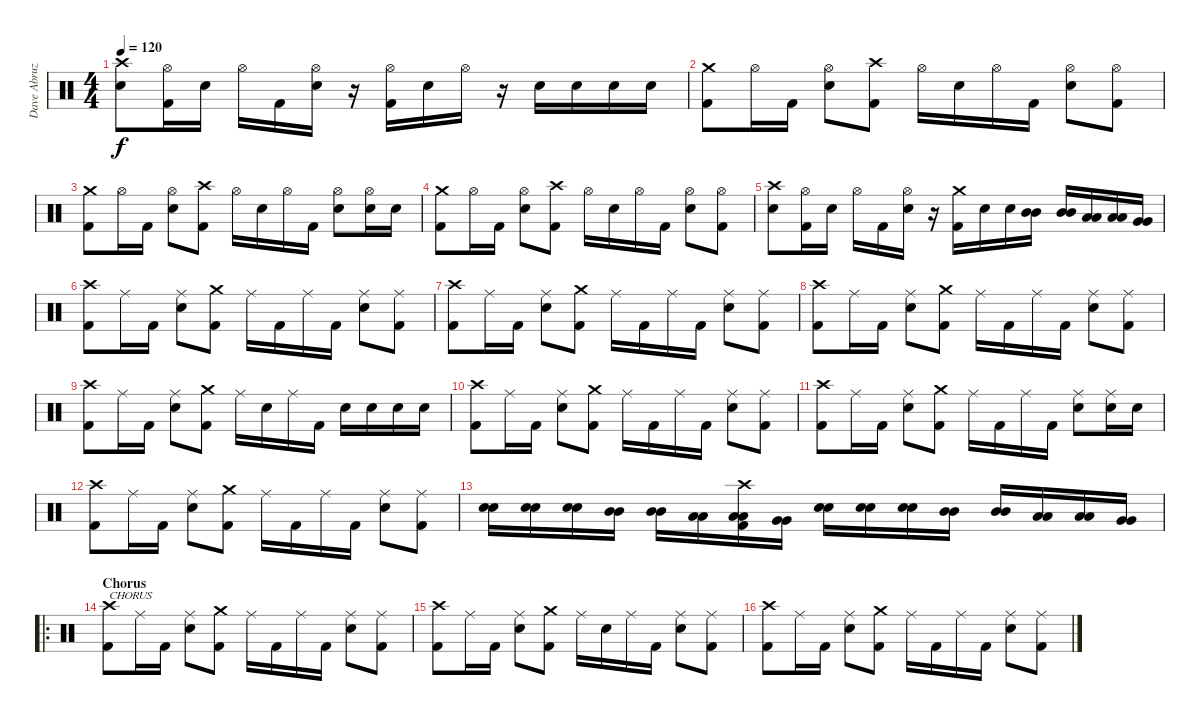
\track ("Dave Abruzzesse" "Dave Abruz") {instrument percussion}
\staff {score}
\articulation defaults
\ts (4 4)
\tempo 120
\clef neutral
\ks c
("Crash high (hit)" "Electric Snare (hit)").8{dy f} ("Hi-Hat (open)" "Kick (hit) 2").16 "Electric Snare (hit)".16 "Hi-Hat (open)".16 "Kick (hit) 2".16 ("Hi-Hat (open)" "Electric Snare (hit)").16 r.16 ("Hi-Hat (open)" "Kick (hit) 2").16 "Electric Snare (hit)".16 "Hi-Hat (open)".16 r.16 "Electric Snare (hit)".16 "Electric Snare (hit)".16 "Electric Snare (hit)".16 "Electric Snare (hit)".16 |
("Crash medium (hit)" "Kick (hit) 2").8 "Hi-Hat (open)".16 "Kick (hit) 2".16 ("Hi-Hat (open)" "Electric Snare (hit)").8 ("Crash high (hit)" "Kick (hit) 2").8 "Hi-Hat (open)".16 "Electric Snare (hit)".16 "Hi-Hat (open)".16 "Kick (hit) 2".16 ("Hi-Hat (open)" "Electric Snare (hit)").8 ("Hi-Hat (open)" "Kick (hit) 2").8 |
("Crash medium (hit)" "Kick (hit) 2").8 "Hi-Hat (open)".16 "Kick (hit) 2".16 ("Hi-Hat (open)" "Electric Snare (hit)").8 ("Crash high (hit)" "Kick (hit) 2").8 "Hi-Hat (open)".16 "Electric Snare (hit)".16 "Hi-Hat (open)".16 "Kick (hit) 2".16 ("Hi-Hat (open)" "Electric Snare (hit)").8 ("Hi-Hat (open)" "Electric Snare (hit)").16 "Electric Snare (hit)".16 |
("Crash medium (hit)" "Kick (hit) 2").8 "Hi-Hat (open)".16 "Kick (hit) 2".16 ("Hi-Hat (open)" "Electric Snare (hit)").8 ("Crash high (hit)" "Kick (hit) 2").8 "Hi-Hat (open)".16 "Electric Snare (hit)".16 "Hi-Hat (open)".16 "Kick (hit) 2".16 ("Hi-Hat (open)" "Electric Snare (hit)").8 ("Hi-Hat (open)" "Kick (hit) 2").8 |
("Crash high (hit)" "Electric Snare (hit)").8 ("Hi-Hat (open)" "Kick (hit) 2").16 "Electric Snare (hit)".16 "Hi-Hat (open)".16 "Kick (hit) 2".16 ("Hi-Hat (open)" "Electric Snare (hit)").16 r.16 ("Crash medium (hit)" "Kick (hit) 2").16 "Electric Snare (hit)".16 "Electric Snare (hit)".16 ("Mid Tom (hit)" "Mid Tom (hit)").16 ("Mid Tom (hit)" "Mid Tom (hit)").16 ("Low Tom (hit)" "Low Tom (hit)").16 ("Low Tom (hit)" "Low Tom (hit)").16 ("Very Low Tom (hit)" "Very Low Tom (hit)").16 |
("Crash high (hit)" "Kick (hit) 2").8 "Ride (middle)".16 "Kick (hit) 2".16 ("Ride (middle)" "Electric Snare (hit)").8 ("Crash medium (hit)" "Kick (hit) 2").8 "Ride (middle)".16 "Kick (hit) 2".16 "Ride (middle)".16 "Kick (hit) 2".16 ("Ride (middle)" "Electric Snare (hit)").8 ("Ride (middle)" "Kick (hit) 2").8 |
("Crash high (hit)" "Kick (hit) 2").8 "Ride (middle)".16 "Kick (hit) 2".16 ("Ride (middle)" "Electric Snare (hit)").8 ("Crash medium (hit)" "Kick (hit) 2").8 "Ride (middle)".16 "Kick (hit) 2".16 "Ride (middle)".16 "Kick (hit) 2".16 ("Ride (middle)" "Electric Snare (hit)").8 ("Ride (middle)" "Kick (hit) 2").8 |
("Crash high (hit)" "Kick (hit) 2").8 "Ride (middle)".16 "Kick (hit) 2".16 ("Ride (middle)" "Electric Snare (hit)").8 ("Crash medium (hit)" "Kick (hit) 2").8 "Ride (middle)".16 "Kick (hit) 2".16 "Ride (middle)".16 "Kick (hit) 2".16 ("Ride (middle)" "Electric Snare (hit)").8 ("Ride (middle)" "Kick (hit) 2").8 |
("Crash high (hit)" "Kick (hit) 2").8 "Ride (middle)".16 "Kick (hit) 2".16 ("Ride (middle)" "Electric Snare (hit)").8 ("Crash medium (hit)" "Kick (hit) 2").8 "Ride (middle)".16 "Electric Snare (hit)".16 "Ride (middle)".16 "Kick (hit) 2".16 "Electric Snare (hit)".16 "Electric Snare (hit)".16 "Electric Snare (hit)".16 "Electric Snare (hit)".16 |
("Crash high (hit)" "Kick (hit) 2").8 "Ride (middle)".16 "Kick (hit) 2".16 ("Ride (middle)" "Electric Snare (hit)").8 ("Crash medium (hit)" "Kick (hit) 2").8 "Ride (middle)".16 "Kick (hit) 2".16 "Ride (middle)".16 "Kick (hit) 2".16 ("Ride (middle)" "Electric Snare (hit)").8 ("Ride (middle)" "Kick (hit) 2").8 |
("Crash high (hit)" "Kick (hit) 2").8 "Ride (middle)".16 "Kick (hit) 2".16 ("Ride (middle)" "Electric Snare (hit)").8 ("Crash medium (hit)" "Kick (hit) 2").8 "Ride (middle)".16 "Kick (hit) 2".16 "Ride (middle)".16 "Kick (hit) 2".16 ("Ride (middle)" "Electric Snare (hit)").8 ("Ride (middle)" "Electric Snare (hit)").16 "Electric Snare (hit)".16 |
("Crash high (hit)" "Kick (hit) 2").8 "Ride (middle)".16 "Kick (hit) 2".16 ("Ride (middle)" "Electric Snare (hit)").8 ("Crash medium (hit)" "Kick (hit) 2").8 "Ride (middle)".16 "Kick (hit) 2".16 "Ride (middle)".16 "Kick (hit) 2".16 ("Ride (middle)" "Electric Snare (hit)").8 ("Ride (middle)" "Kick (hit) 2").8 |
("Electric Snare (hit)" "Electric Snare (hit)").16 ("Electric Snare (hit)" "Electric Snare (hit)").16 ("Electric Snare (hit)" "Electric Snare (hit)").16 ("Mid Tom (hit)" "Mid Tom (hit)").16 ("Mid Tom (hit)" "Mid Tom (hit)").16 ("Low Tom (hit)" "Low Tom (hit)").16 ("Crash high (hit)" "Kick (hit) 2" "Low Tom (hit)" "Low Tom (hit)").16 ("Very Low Tom (hit)" "Very Low Tom (hit)").16 ("Electric Snare (hit)" "Electric Snare (hit)").16 ("Electric Snare (hit)" "Electric Snare (hit)").16 ("Electric Snare (hit)" "Electric Snare (hit)").16 ("Mid Tom (hit)" "Mid Tom (hit)").16 ("Mid Tom (hit)" "Mid Tom (hit)").16 ("Low Tom (hit)" "Low Tom (hit)").16 ("Low Tom (hit)" "Low Tom (hit)").16 ("Very Low Tom (hit)" "Very Low Tom (hit)").16 |
\ro
\section ("" "Chorus")
("Crash high (hit)" "Kick (hit) 2").8{txt "CHORUS"} "Ride (middle)".16 "Kick (hit) 2".16 ("Ride (middle)" "Electric Snare (hit)").8 ("Crash medium (hit)" "Kick (hit) 2").8 "Ride (middle)".16 "Kick (hit) 2".16 "Ride (middle)".16 "Kick (hit) 2".16 ("Ride (middle)" "Electric Snare (hit)").8 ("Ride (middle)" "Kick (hit) 2").8 |
("Crash high (hit)" "Kick (hit) 2").8 "Ride (middle)".16 "Kick (hit) 2".16 ("Ride (middle)" "Electric Snare (hit)").8 ("Crash medium (hit)" "Kick (hit) 2").8 "Ride (middle)".16 "Electric Snare (hit)".16 "Ride (middle)".16 "Kick (hit) 2".16 ("Ride (middle)" "Electric Snare (hit)").8 ("Ride (middle)" "Kick (hit) 2").8 |
("Crash high (hit)" "Kick (hit) 2").8 "Ride (middle)".16 "Kick (hit) 2".16 ("Ride (middle)" "Electric Snare (hit)").8 ("Crash medium (hit)" "Kick (hit) 2").8 "Ride (middle)".16 "Kick (hit) 2".16 "Ride (middle)".16 "Kick (hit) 2".16 ("Ride (middle)" "Electric Snare (hit)").8 ("Ride (middle)" "Kick (hit) 2").8
